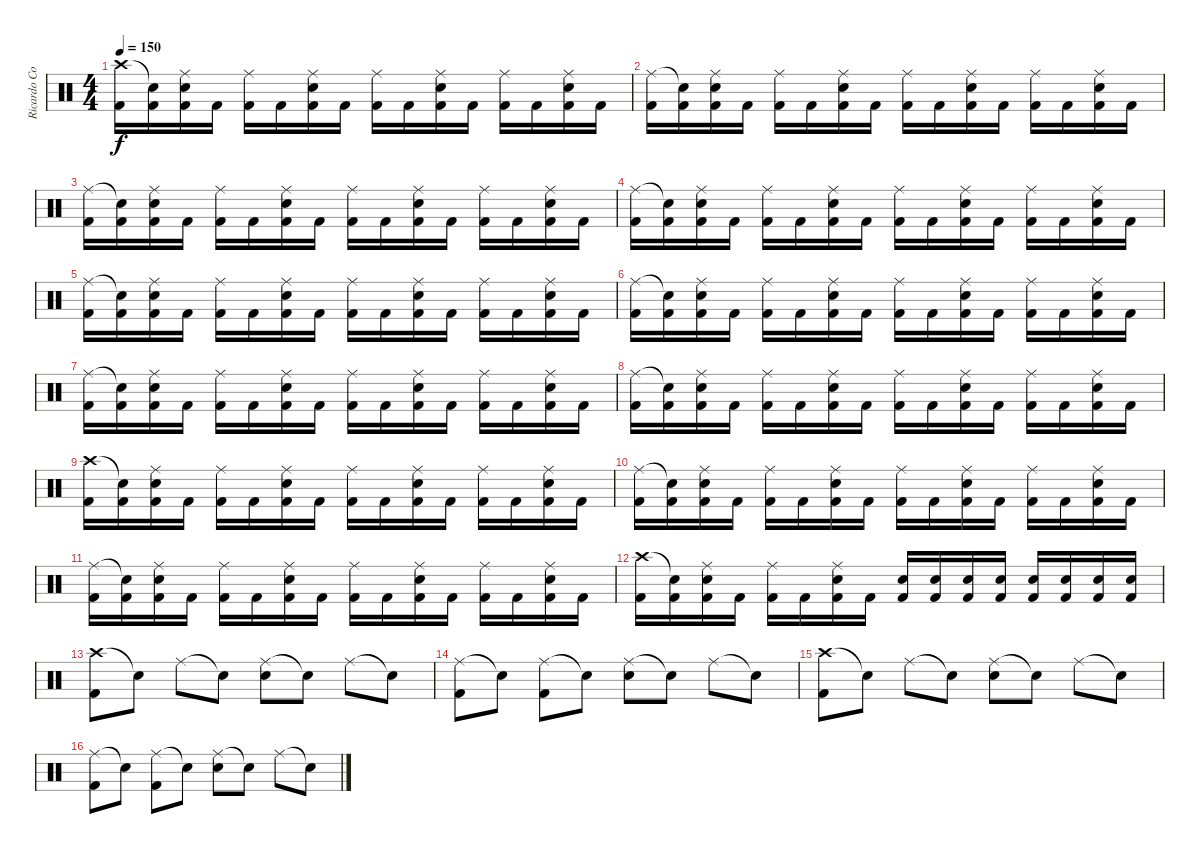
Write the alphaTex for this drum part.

\track ("Ricardo Confessori" "Ricardo Co") {instrument percussion}
\staff {score}
\articulation defaults
\ts (4 4)
\tempo 150
\clef neutral
\ks c
("Crash high (hit)" "Kick (hit) 2").16{dy f} ("Snare (hit)"{t} "Kick (hit) 2").16 ("Ride (middle)" "Electric Snare (hit)" "Kick (hit) 2").16 "Kick (hit) 2".16 ("Ride (middle)" "Kick (hit) 2").16 "Kick (hit) 2".16 ("Ride (middle)" "Electric Snare (hit)" "Kick (hit) 2").16 "Kick (hit) 2".16 ("Ride (middle)" "Kick (hit) 2").16 "Kick (hit) 2".16 ("Ride (middle)" "Electric Snare (hit)" "Kick (hit) 2").16 "Kick (hit) 2".16 ("Ride (middle)" "Kick (hit) 2").16 "Kick (hit) 2".16 ("Ride (middle)" "Electric Snare (hit)" "Kick (hit) 2").16 "Kick (hit) 2".16 |
("Ride (middle)" "Kick (hit) 2").16 ("Snare (hit)"{t} "Kick (hit) 2").16 ("Ride (middle)" "Electric Snare (hit)" "Kick (hit) 2").16 "Kick (hit) 2".16 ("Ride (middle)" "Kick (hit) 2").16 "Kick (hit) 2".16 ("Ride (middle)" "Electric Snare (hit)" "Kick (hit) 2").16 "Kick (hit) 2".16 ("Ride (middle)" "Kick (hit) 2").16 "Kick (hit) 2".16 ("Ride (middle)" "Electric Snare (hit)" "Kick (hit) 2").16 "Kick (hit) 2".16 ("Ride (middle)" "Kick (hit) 2").16 "Kick (hit) 2".16 ("Ride (middle)" "Electric Snare (hit)" "Kick (hit) 2").16 "Kick (hit) 2".16 |
("Ride (middle)" "Kick (hit) 2").16 ("Snare (hit)"{t} "Kick (hit) 2").16 ("Ride (middle)" "Electric Snare (hit)" "Kick (hit) 2").16 "Kick (hit) 2".16 ("Ride (middle)" "Kick (hit) 2").16 "Kick (hit) 2".16 ("Ride (middle)" "Electric Snare (hit)" "Kick (hit) 2").16 "Kick (hit) 2".16 ("Ride (middle)" "Kick (hit) 2").16 "Kick (hit) 2".16 ("Ride (middle)" "Electric Snare (hit)" "Kick (hit) 2").16 "Kick (hit) 2".16 ("Ride (middle)" "Kick (hit) 2").16 "Kick (hit) 2".16 ("Ride (middle)" "Electric Snare (hit)" "Kick (hit) 2").16 "Kick (hit) 2".16 |
("Ride (middle)" "Kick (hit) 2").16 ("Snare (hit)"{t} "Kick (hit) 2").16 ("Ride (middle)" "Electric Snare (hit)" "Kick (hit) 2").16 "Kick (hit) 2".16 ("Ride (middle)" "Kick (hit) 2").16 "Kick (hit) 2".16 ("Ride (middle)" "Electric Snare (hit)" "Kick (hit) 2").16 "Kick (hit) 2".16 ("Ride (middle)" "Kick (hit) 2").16 "Kick (hit) 2".16 ("Ride (middle)" "Electric Snare (hit)" "Kick (hit) 2").16 "Kick (hit) 2".16 ("Ride (middle)" "Kick (hit) 2").16 "Kick (hit) 2".16 ("Ride (middle)" "Electric Snare (hit)" "Kick (hit) 2").16 "Kick (hit) 2".16 |
("Ride (middle)" "Kick (hit) 2").16 ("Snare (hit)"{t} "Kick (hit) 2").16 ("Ride (middle)" "Electric Snare (hit)" "Kick (hit) 2").16 "Kick (hit) 2".16 ("Ride (middle)" "Kick (hit) 2").16 "Kick (hit) 2".16 ("Ride (middle)" "Electric Snare (hit)" "Kick (hit) 2").16 "Kick (hit) 2".16 ("Ride (middle)" "Kick (hit) 2").16 "Kick (hit) 2".16 ("Ride (middle)" "Electric Snare (hit)" "Kick (hit) 2").16 "Kick (hit) 2".16 ("Ride (middle)" "Kick (hit) 2").16 "Kick (hit) 2".16 ("Ride (middle)" "Electric Snare (hit)" "Kick (hit) 2").16 "Kick (hit) 2".16 |
("Ride (middle)" "Kick (hit) 2").16 ("Snare (hit)"{t} "Kick (hit) 2").16 ("Ride (middle)" "Electric Snare (hit)" "Kick (hit) 2").16 "Kick (hit) 2".16 ("Ride (middle)" "Kick (hit) 2").16 "Kick (hit) 2".16 ("Ride (middle)" "Electric Snare (hit)" "Kick (hit) 2").16 "Kick (hit) 2".16 ("Ride (middle)" "Kick (hit) 2").16 "Kick (hit) 2".16 ("Ride (middle)" "Electric Snare (hit)" "Kick (hit) 2").16 "Kick (hit) 2".16 ("Ride (middle)" "Kick (hit) 2").16 "Kick (hit) 2".16 ("Ride (middle)" "Electric Snare (hit)" "Kick (hit) 2").16 "Kick (hit) 2".16 |
("Ride (middle)" "Kick (hit) 2").16 ("Snare (hit)"{t} "Kick (hit) 2").16 ("Ride (middle)" "Electric Snare (hit)" "Kick (hit) 2").16 "Kick (hit) 2".16 ("Ride (middle)" "Kick (hit) 2").16 "Kick (hit) 2".16 ("Ride (middle)" "Electric Snare (hit)" "Kick (hit) 2").16 "Kick (hit) 2".16 ("Ride (middle)" "Kick (hit) 2").16 "Kick (hit) 2".16 ("Ride (middle)" "Electric Snare (hit)" "Kick (hit) 2").16 "Kick (hit) 2".16 ("Ride (middle)" "Kick (hit) 2").16 "Kick (hit) 2".16 ("Ride (middle)" "Electric Snare (hit)" "Kick (hit) 2").16 "Kick (hit) 2".16 |
("Ride (middle)" "Kick (hit) 2").16 ("Snare (hit)"{t} "Kick (hit) 2").16 ("Ride (middle)" "Electric Snare (hit)" "Kick (hit) 2").16 "Kick (hit) 2".16 ("Ride (middle)" "Kick (hit) 2").16 "Kick (hit) 2".16 ("Ride (middle)" "Electric Snare (hit)" "Kick (hit) 2").16 "Kick (hit) 2".16 ("Ride (middle)" "Kick (hit) 2").16 "Kick (hit) 2".16 ("Ride (middle)" "Electric Snare (hit)" "Kick (hit) 2").16 "Kick (hit) 2".16 ("Ride (middle)" "Kick (hit) 2").16 "Kick (hit) 2".16 ("Ride (middle)" "Electric Snare (hit)" "Kick (hit) 2").16 "Kick (hit) 2".16 |
("Crash high (hit)" "Kick (hit) 2").16 ("Snare (hit)"{t} "Kick (hit) 2").16 ("Ride (middle)" "Electric Snare (hit)" "Kick (hit) 2").16 "Kick (hit) 2".16 ("Ride (middle)" "Kick (hit) 2").16 "Kick (hit) 2".16 ("Ride (middle)" "Electric Snare (hit)" "Kick (hit) 2").16 "Kick (hit) 2".16 ("Ride (middle)" "Kick (hit) 2").16 "Kick (hit) 2".16 ("Ride (middle)" "Electric Snare (hit)" "Kick (hit) 2").16 "Kick (hit) 2".16 ("Ride (middle)" "Kick (hit) 2").16 "Kick (hit) 2".16 ("Ride (middle)" "Electric Snare (hit)" "Kick (hit) 2").16 "Kick (hit) 2".16 |
("Ride (middle)" "Kick (hit) 2").16 ("Snare (hit)"{t} "Kick (hit) 2").16 ("Ride (middle)" "Electric Snare (hit)" "Kick (hit) 2").16 "Kick (hit) 2".16 ("Ride (middle)" "Kick (hit) 2").16 "Kick (hit) 2".16 ("Ride (middle)" "Electric Snare (hit)" "Kick (hit) 2").16 "Kick (hit) 2".16 ("Ride (middle)" "Kick (hit) 2").16 "Kick (hit) 2".16 ("Ride (middle)" "Electric Snare (hit)" "Kick (hit) 2").16 "Kick (hit) 2".16 ("Ride (middle)" "Kick (hit) 2").16 "Kick (hit) 2".16 ("Ride (middle)" "Electric Snare (hit)" "Kick (hit) 2").16 "Kick (hit) 2".16 |
("Ride (middle)" "Kick (hit) 2").16 ("Snare (hit)"{t} "Kick (hit) 2").16 ("Ride (middle)" "Electric Snare (hit)" "Kick (hit) 2").16 "Kick (hit) 2".16 ("Ride (middle)" "Kick (hit) 2").16 "Kick (hit) 2".16 ("Ride (middle)" "Electric Snare (hit)" "Kick (hit) 2").16 "Kick (hit) 2".16 ("Ride (middle)" "Kick (hit) 2").16 "Kick (hit) 2".16 ("Ride (middle)" "Electric Snare (hit)" "Kick (hit) 2").16 "Kick (hit) 2".16 ("Ride (middle)" "Kick (hit) 2").16 "Kick (hit) 2".16 ("Ride (middle)" "Electric Snare (hit)" "Kick (hit) 2").16 "Kick (hit) 2".16 |
("Crash high (hit)" "Kick (hit) 2").16 ("Snare (hit)"{t} "Kick (hit) 2").16 ("Ride (middle)" "Electric Snare (hit)" "Kick (hit) 2").16 "Kick (hit) 2".16 ("Ride (middle)" "Kick (hit) 2").16 "Kick (hit) 2".16 ("Ride (middle)" "Electric Snare (hit)" "Kick (hit) 2").16 "Kick (hit) 2".16 ("Electric Snare (hit)" "Kick (hit) 2").16 ("Electric Snare (hit)" "Kick (hit) 2").16 ("Electric Snare (hit)" "Kick (hit) 2").16 ("Electric Snare (hit)" "Kick (hit) 2").16 ("Electric Snare (hit)" "Kick (hit) 2").16 ("Electric Snare (hit)" "Kick (hit) 2").16 ("Electric Snare (hit)" "Kick (hit) 2").16 ("Electric Snare (hit)" "Kick (hit) 2").16 |
("Crash high (hit)" "Kick (hit) 2").8 "Snare (hit)"{t}.8 "Ride (middle)".8 "Snare (hit)"{t}.8 ("Ride (middle)" "Electric Snare (hit)").8 "Snare (hit)"{t}.8 "Ride (middle)".8 "Snare (hit)"{t}.8 |
("Ride (middle)" "Kick (hit) 2").8 "Snare (hit)"{t}.8 ("Ride (middle)" "Kick (hit) 2").8 "Snare (hit)"{t}.8 ("Ride (middle)" "Electric Snare (hit)").8 "Snare (hit)"{t}.8 "Ride (middle)".8 "Snare (hit)"{t}.8 |
("Crash high (hit)" "Kick (hit) 2").8 "Snare (hit)"{t}.8 "Ride (middle)".8 "Snare (hit)"{t}.8 ("Ride (middle)" "Electric Snare (hit)").8 "Snare (hit)"{t}.8 "Ride (middle)".8 "Snare (hit)"{t}.8 |
("Ride (middle)" "Kick (hit) 2").8 "Snare (hit)"{t}.8 ("Ride (middle)" "Kick (hit) 2").8 "Snare (hit)"{t}.8 ("Ride (middle)" "Electric Snare (hit)").8 "Snare (hit)"{t}.8 "Ride (middle)".8 "Snare (hit)"{t}.8
